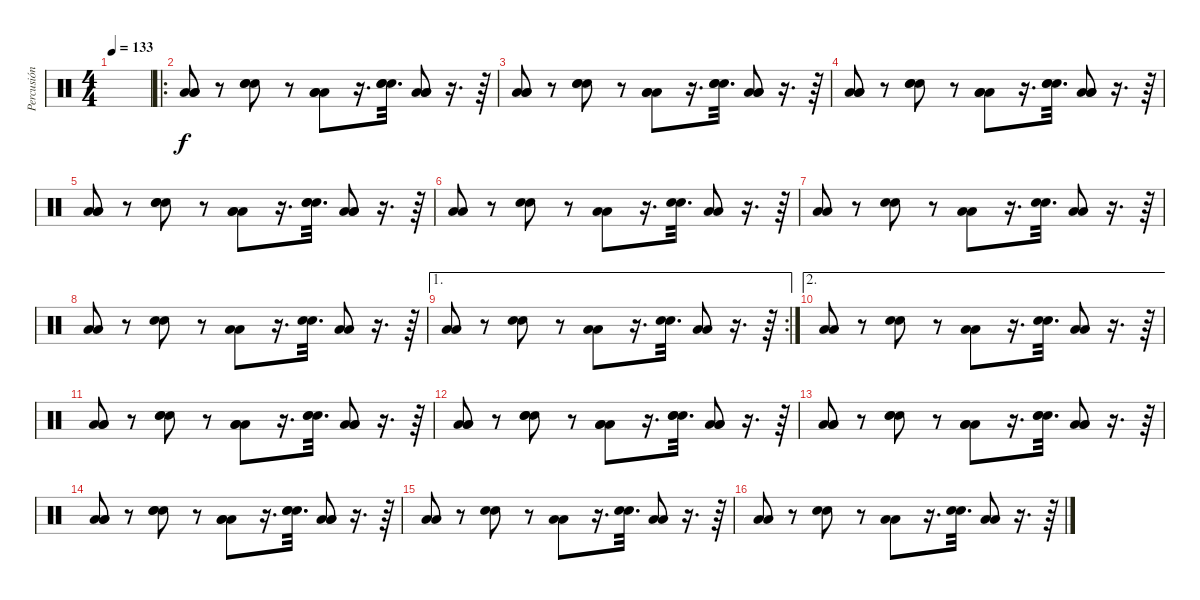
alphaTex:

\track ("Percusión" "Percusión") {instrument percussion}
\staff {score}
\articulation defaults
\ts (4 4)
\tempo 133
\clef neutral
\ks c
|
\ro
("Low Tom (hit)" "Low Tom (hit)" "Low Tom (hit)").8 r.8 ("Snare (hit) 2" "Snare (hit) 2" "Snare (hit) 2").8 r.8 ("Low Tom (hit)" "Low Tom (hit)" "Low Tom (hit)").8 r.16{d} ("Snare (hit) 2" "Snare (hit) 2" "Snare (hit) 2").32{d} ("Low Tom (hit)" "Low Tom (hit)" "Low Tom (hit)").8 r.16{d} r.64 |
("Low Tom (hit)" "Low Tom (hit)" "Low Tom (hit)").8 r.8 ("Snare (hit) 2" "Snare (hit) 2" "Snare (hit) 2").8 r.8 ("Low Tom (hit)" "Low Tom (hit)" "Low Tom (hit)").8 r.16{d} ("Snare (hit) 2" "Snare (hit) 2" "Snare (hit) 2").32{d} ("Low Tom (hit)" "Low Tom (hit)" "Low Tom (hit)").8 r.16{d} r.64 |
("Low Tom (hit)" "Low Tom (hit)" "Low Tom (hit)").8 r.8 ("Snare (hit) 2" "Snare (hit) 2" "Snare (hit) 2").8 r.8 ("Low Tom (hit)" "Low Tom (hit)" "Low Tom (hit)").8 r.16{d} ("Snare (hit) 2" "Snare (hit) 2" "Snare (hit) 2").32{d} ("Low Tom (hit)" "Low Tom (hit)" "Low Tom (hit)").8 r.16{d} r.64 |
("Low Tom (hit)" "Low Tom (hit)" "Low Tom (hit)").8 r.8 ("Snare (hit) 2" "Snare (hit) 2" "Snare (hit) 2").8 r.8 ("Low Tom (hit)" "Low Tom (hit)" "Low Tom (hit)").8 r.16{d} ("Snare (hit) 2" "Snare (hit) 2" "Snare (hit) 2").32{d} ("Low Tom (hit)" "Low Tom (hit)" "Low Tom (hit)").8 r.16{d} r.64 |
("Low Tom (hit)" "Low Tom (hit)").8 r.8 ("Snare (hit) 2" "Snare (hit) 2").8 r.8 ("Low Tom (hit)" "Low Tom (hit)").8 r.16{d} ("Snare (hit) 2" "Snare (hit) 2").32{d} ("Low Tom (hit)" "Low Tom (hit)").8 r.16{d} r.64 |
("Low Tom (hit)" "Low Tom (hit)").8 r.8 ("Snare (hit) 2" "Snare (hit) 2").8 r.8 ("Low Tom (hit)" "Low Tom (hit)").8 r.16{d} ("Snare (hit) 2" "Snare (hit) 2").32{d} ("Low Tom (hit)" "Low Tom (hit)").8 r.16{d} r.64 |
("Low Tom (hit)" "Low Tom (hit)").8 r.8 ("Snare (hit) 2" "Snare (hit) 2").8 r.8 ("Low Tom (hit)" "Low Tom (hit)").8 r.16{d} ("Snare (hit) 2" "Snare (hit) 2").32{d} ("Low Tom (hit)" "Low Tom (hit)").8 r.16{d} r.64 |
\ae 1
\rc 2
("Low Tom (hit)" "Low Tom (hit)").8 r.8 ("Snare (hit) 2" "Snare (hit) 2").8 r.8 ("Low Tom (hit)" "Low Tom (hit)").8 r.16{d} ("Snare (hit) 2" "Snare (hit) 2").32{d} ("Low Tom (hit)" "Low Tom (hit)").8 r.16{d} r.64 |
\ae 2
("Low Tom (hit)" "Low Tom (hit)").8 r.8 ("Snare (hit) 2" "Snare (hit) 2").8 r.8 ("Low Tom (hit)" "Low Tom (hit)").8 r.16{d} ("Snare (hit) 2" "Snare (hit) 2").32{d} ("Low Tom (hit)" "Low Tom (hit)").8 r.16{d} r.64 |
("Low Tom (hit)" "Low Tom (hit)" "Low Tom (hit)").8 r.8 ("Snare (hit) 2" "Snare (hit) 2" "Snare (hit) 2").8 r.8 ("Low Tom (hit)" "Low Tom (hit)" "Low Tom (hit)").8 r.16{d} ("Snare (hit) 2" "Snare (hit) 2" "Snare (hit) 2").32{d} ("Low Tom (hit)" "Low Tom (hit)" "Low Tom (hit)").8 r.16{d} r.64 |
("Low Tom (hit)" "Low Tom (hit)" "Low Tom (hit)").8 r.8 ("Snare (hit) 2" "Snare (hit) 2" "Snare (hit) 2").8 r.8 ("Low Tom (hit)" "Low Tom (hit)" "Low Tom (hit)").8 r.16{d} ("Snare (hit) 2" "Snare (hit) 2" "Snare (hit) 2").32{d} ("Low Tom (hit)" "Low Tom (hit)" "Low Tom (hit)").8 r.16{d} r.64 |
("Low Tom (hit)" "Low Tom (hit)" "Low Tom (hit)").8 r.8 ("Snare (hit) 2" "Snare (hit) 2" "Snare (hit) 2").8 r.8 ("Low Tom (hit)" "Low Tom (hit)" "Low Tom (hit)").8 r.16{d} ("Snare (hit) 2" "Snare (hit) 2" "Snare (hit) 2").32{d} ("Low Tom (hit)" "Low Tom (hit)" "Low Tom (hit)").8 r.16{d} r.64 |
("Low Tom (hit)" "Low Tom (hit)" "Low Tom (hit)").8 r.8 ("Snare (hit) 2" "Snare (hit) 2" "Snare (hit) 2").8 r.8 ("Low Tom (hit)" "Low Tom (hit)" "Low Tom (hit)").8 r.16{d} ("Snare (hit) 2" "Snare (hit) 2" "Snare (hit) 2").32{d} ("Low Tom (hit)" "Low Tom (hit)" "Low Tom (hit)").8 r.16{d} r.64 |
("Low Tom (hit)" "Low Tom (hit)").8 r.8 ("Snare (hit) 2" "Snare (hit) 2").8 r.8 ("Low Tom (hit)" "Low Tom (hit)").8 r.16{d} ("Snare (hit) 2" "Snare (hit) 2").32{d} ("Low Tom (hit)" "Low Tom (hit)").8 r.16{d} r.64 |
("Low Tom (hit)" "Low Tom (hit)").8 r.8 ("Snare (hit) 2" "Snare (hit) 2").8 r.8 ("Low Tom (hit)" "Low Tom (hit)").8 r.16{d} ("Snare (hit) 2" "Snare (hit) 2").32{d} ("Low Tom (hit)" "Low Tom (hit)").8 r.16{d} r.64
